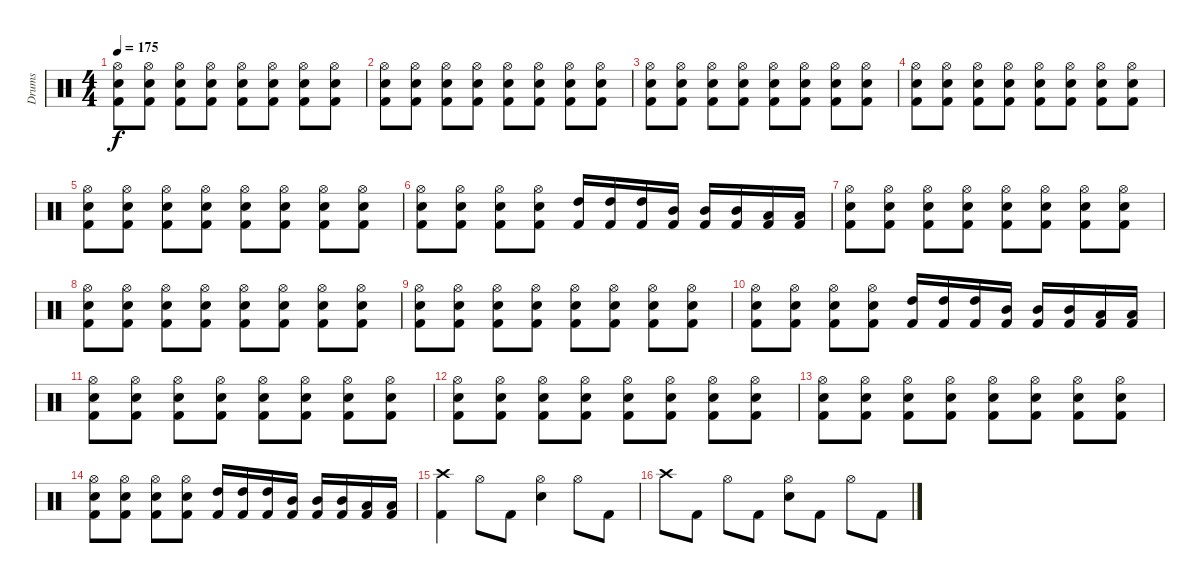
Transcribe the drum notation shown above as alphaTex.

\track ("Drums" "Drums") {instrument percussion}
\staff {score}
\articulation defaults
\ts (4 4)
\tempo 175
\clef neutral
\ks c
("Hi-Hat (open)" "Snare (hit) 2" "Kick (hit) 2").8{dy f} ("Hi-Hat (open)" "Snare (hit) 2" "Kick (hit) 2").8 ("Hi-Hat (open)" "Snare (hit) 2" "Kick (hit) 2").8 ("Hi-Hat (open)" "Snare (hit) 2" "Kick (hit) 2").8 ("Hi-Hat (open)" "Snare (hit) 2" "Kick (hit) 2").8 ("Hi-Hat (open)" "Snare (hit) 2" "Kick (hit) 2").8 ("Hi-Hat (open)" "Snare (hit) 2" "Kick (hit) 2").8 ("Hi-Hat (open)" "Snare (hit) 2" "Kick (hit) 2").8 |
("Hi-Hat (open)" "Snare (hit) 2" "Kick (hit) 2").8 ("Hi-Hat (open)" "Snare (hit) 2" "Kick (hit) 2").8 ("Hi-Hat (open)" "Snare (hit) 2" "Kick (hit) 2").8 ("Hi-Hat (open)" "Snare (hit) 2" "Kick (hit) 2").8 ("Hi-Hat (open)" "Snare (hit) 2" "Kick (hit) 2").8 ("Hi-Hat (open)" "Snare (hit) 2" "Kick (hit) 2").8 ("Hi-Hat (open)" "Snare (hit) 2" "Kick (hit) 2").8 ("Hi-Hat (open)" "Snare (hit) 2" "Kick (hit) 2").8 |
("Hi-Hat (open)" "Snare (hit) 2" "Kick (hit) 2").8 ("Hi-Hat (open)" "Snare (hit) 2" "Kick (hit) 2").8 ("Hi-Hat (open)" "Snare (hit) 2" "Kick (hit) 2").8 ("Hi-Hat (open)" "Snare (hit) 2" "Kick (hit) 2").8 ("Hi-Hat (open)" "Snare (hit) 2" "Kick (hit) 2").8 ("Hi-Hat (open)" "Snare (hit) 2" "Kick (hit) 2").8 ("Hi-Hat (open)" "Snare (hit) 2" "Kick (hit) 2").8 ("Hi-Hat (open)" "Snare (hit) 2" "Kick (hit) 2").8 |
("Hi-Hat (open)" "Snare (hit) 2" "Kick (hit) 2").8 ("Hi-Hat (open)" "Snare (hit) 2" "Kick (hit) 2").8 ("Hi-Hat (open)" "Snare (hit) 2" "Kick (hit) 2").8 ("Hi-Hat (open)" "Snare (hit) 2" "Kick (hit) 2").8 ("Hi-Hat (open)" "Snare (hit) 2" "Kick (hit) 2").8 ("Hi-Hat (open)" "Snare (hit) 2" "Kick (hit) 2").8 ("Hi-Hat (open)" "Snare (hit) 2" "Kick (hit) 2").8 ("Hi-Hat (open)" "Snare (hit) 2" "Kick (hit) 2").8 |
("Hi-Hat (open)" "Snare (hit) 2" "Kick (hit) 2").8 ("Hi-Hat (open)" "Snare (hit) 2" "Kick (hit) 2").8 ("Hi-Hat (open)" "Snare (hit) 2" "Kick (hit) 2").8 ("Hi-Hat (open)" "Snare (hit) 2" "Kick (hit) 2").8 ("Hi-Hat (open)" "Snare (hit) 2" "Kick (hit) 2").8 ("Hi-Hat (open)" "Snare (hit) 2" "Kick (hit) 2").8 ("Hi-Hat (open)" "Snare (hit) 2" "Kick (hit) 2").8 ("Hi-Hat (open)" "Snare (hit) 2" "Kick (hit) 2").8 |
("Hi-Hat (open)" "Snare (hit) 2" "Kick (hit) 2").8 ("Hi-Hat (open)" "Snare (hit) 2" "Kick (hit) 2").8 ("Hi-Hat (open)" "Snare (hit) 2" "Kick (hit) 2").8 ("Hi-Hat (open)" "Snare (hit) 2" "Kick (hit) 2").8 ("High Tom (hit)" "Kick (hit) 2").16 ("High Tom (hit)" "Kick (hit) 2").16 ("High Tom (hit)" "Kick (hit) 2").16 ("Mid Tom (hit)" "Kick (hit) 2").16 ("Mid Tom (hit)" "Kick (hit) 2").16 ("Mid Tom (hit)" "Kick (hit) 2").16 ("Low Tom (hit)" "Kick (hit) 2").16 ("Low Tom (hit)" "Kick (hit) 2").16 |
("Hi-Hat (open)" "Snare (hit) 2" "Kick (hit) 2").8 ("Hi-Hat (open)" "Snare (hit) 2" "Kick (hit) 2").8 ("Hi-Hat (open)" "Snare (hit) 2" "Kick (hit) 2").8 ("Hi-Hat (open)" "Snare (hit) 2" "Kick (hit) 2").8 ("Hi-Hat (open)" "Snare (hit) 2" "Kick (hit) 2").8 ("Hi-Hat (open)" "Snare (hit) 2" "Kick (hit) 2").8 ("Hi-Hat (open)" "Snare (hit) 2" "Kick (hit) 2").8 ("Hi-Hat (open)" "Snare (hit) 2" "Kick (hit) 2").8 |
("Hi-Hat (open)" "Snare (hit) 2" "Kick (hit) 2").8 ("Hi-Hat (open)" "Snare (hit) 2" "Kick (hit) 2").8 ("Hi-Hat (open)" "Snare (hit) 2" "Kick (hit) 2").8 ("Hi-Hat (open)" "Snare (hit) 2" "Kick (hit) 2").8 ("Hi-Hat (open)" "Snare (hit) 2" "Kick (hit) 2").8 ("Hi-Hat (open)" "Snare (hit) 2" "Kick (hit) 2").8 ("Hi-Hat (open)" "Snare (hit) 2" "Kick (hit) 2").8 ("Hi-Hat (open)" "Snare (hit) 2" "Kick (hit) 2").8 |
("Hi-Hat (open)" "Snare (hit) 2" "Kick (hit) 2").8 ("Hi-Hat (open)" "Snare (hit) 2" "Kick (hit) 2").8 ("Hi-Hat (open)" "Snare (hit) 2" "Kick (hit) 2").8 ("Hi-Hat (open)" "Snare (hit) 2" "Kick (hit) 2").8 ("Hi-Hat (open)" "Snare (hit) 2" "Kick (hit) 2").8 ("Hi-Hat (open)" "Snare (hit) 2" "Kick (hit) 2").8 ("Hi-Hat (open)" "Snare (hit) 2" "Kick (hit) 2").8 ("Hi-Hat (open)" "Snare (hit) 2" "Kick (hit) 2").8 |
("Hi-Hat (open)" "Snare (hit) 2" "Kick (hit) 2").8 ("Hi-Hat (open)" "Snare (hit) 2" "Kick (hit) 2").8 ("Hi-Hat (open)" "Snare (hit) 2" "Kick (hit) 2").8 ("Hi-Hat (open)" "Snare (hit) 2" "Kick (hit) 2").8 ("High Tom (hit)" "Kick (hit) 2").16 ("High Tom (hit)" "Kick (hit) 2").16 ("High Tom (hit)" "Kick (hit) 2").16 ("Mid Tom (hit)" "Kick (hit) 2").16 ("Mid Tom (hit)" "Kick (hit) 2").16 ("Mid Tom (hit)" "Kick (hit) 2").16 ("Low Tom (hit)" "Kick (hit) 2").16 ("Low Tom (hit)" "Kick (hit) 2").16 |
("Hi-Hat (open)" "Snare (hit) 2" "Kick (hit) 2").8 ("Hi-Hat (open)" "Snare (hit) 2" "Kick (hit) 2").8 ("Hi-Hat (open)" "Snare (hit) 2" "Kick (hit) 2").8 ("Hi-Hat (open)" "Snare (hit) 2" "Kick (hit) 2").8 ("Hi-Hat (open)" "Snare (hit) 2" "Kick (hit) 2").8 ("Hi-Hat (open)" "Snare (hit) 2" "Kick (hit) 2").8 ("Hi-Hat (open)" "Snare (hit) 2" "Kick (hit) 2").8 ("Hi-Hat (open)" "Snare (hit) 2" "Kick (hit) 2").8 |
("Hi-Hat (open)" "Snare (hit) 2" "Kick (hit) 2").8 ("Hi-Hat (open)" "Snare (hit) 2" "Kick (hit) 2").8 ("Hi-Hat (open)" "Snare (hit) 2" "Kick (hit) 2").8 ("Hi-Hat (open)" "Snare (hit) 2" "Kick (hit) 2").8 ("Hi-Hat (open)" "Snare (hit) 2" "Kick (hit) 2").8 ("Hi-Hat (open)" "Snare (hit) 2" "Kick (hit) 2").8 ("Hi-Hat (open)" "Snare (hit) 2" "Kick (hit) 2").8 ("Hi-Hat (open)" "Snare (hit) 2" "Kick (hit) 2").8 |
("Hi-Hat (open)" "Snare (hit) 2" "Kick (hit) 2").8 ("Hi-Hat (open)" "Snare (hit) 2" "Kick (hit) 2").8 ("Hi-Hat (open)" "Snare (hit) 2" "Kick (hit) 2").8 ("Hi-Hat (open)" "Snare (hit) 2" "Kick (hit) 2").8 ("Hi-Hat (open)" "Snare (hit) 2" "Kick (hit) 2").8 ("Hi-Hat (open)" "Snare (hit) 2" "Kick (hit) 2").8 ("Hi-Hat (open)" "Snare (hit) 2" "Kick (hit) 2").8 ("Hi-Hat (open)" "Snare (hit) 2" "Kick (hit) 2").8 |
("Hi-Hat (open)" "Snare (hit) 2" "Kick (hit) 2").8 ("Hi-Hat (open)" "Snare (hit) 2" "Kick (hit) 2").8 ("Hi-Hat (open)" "Snare (hit) 2" "Kick (hit) 2").8 ("Hi-Hat (open)" "Snare (hit) 2" "Kick (hit) 2").8 ("High Tom (hit)" "Kick (hit) 2").16 ("High Tom (hit)" "Kick (hit) 2").16 ("High Tom (hit)" "Kick (hit) 2").16 ("Mid Tom (hit)" "Kick (hit) 2").16 ("Mid Tom (hit)" "Kick (hit) 2").16 ("Mid Tom (hit)" "Kick (hit) 2").16 ("Low Tom (hit)" "Kick (hit) 2").16 ("Low Tom (hit)" "Kick (hit) 2").16 |
("Crash high (hit)" "Kick (hit) 2").4 "Hi-Hat (open)".8 "Kick (hit) 2".8 ("Hi-Hat (open)" "Snare (hit) 2").4 "Hi-Hat (open)".8 "Kick (hit) 2".8 |
"Crash high (hit)".8 "Kick (hit) 2".8 "Hi-Hat (open)".8 "Kick (hit) 2".8 ("Hi-Hat (open)" "Snare (hit) 2").8 "Kick (hit) 2".8 "Hi-Hat (open)".8 "Kick (hit) 2".8
